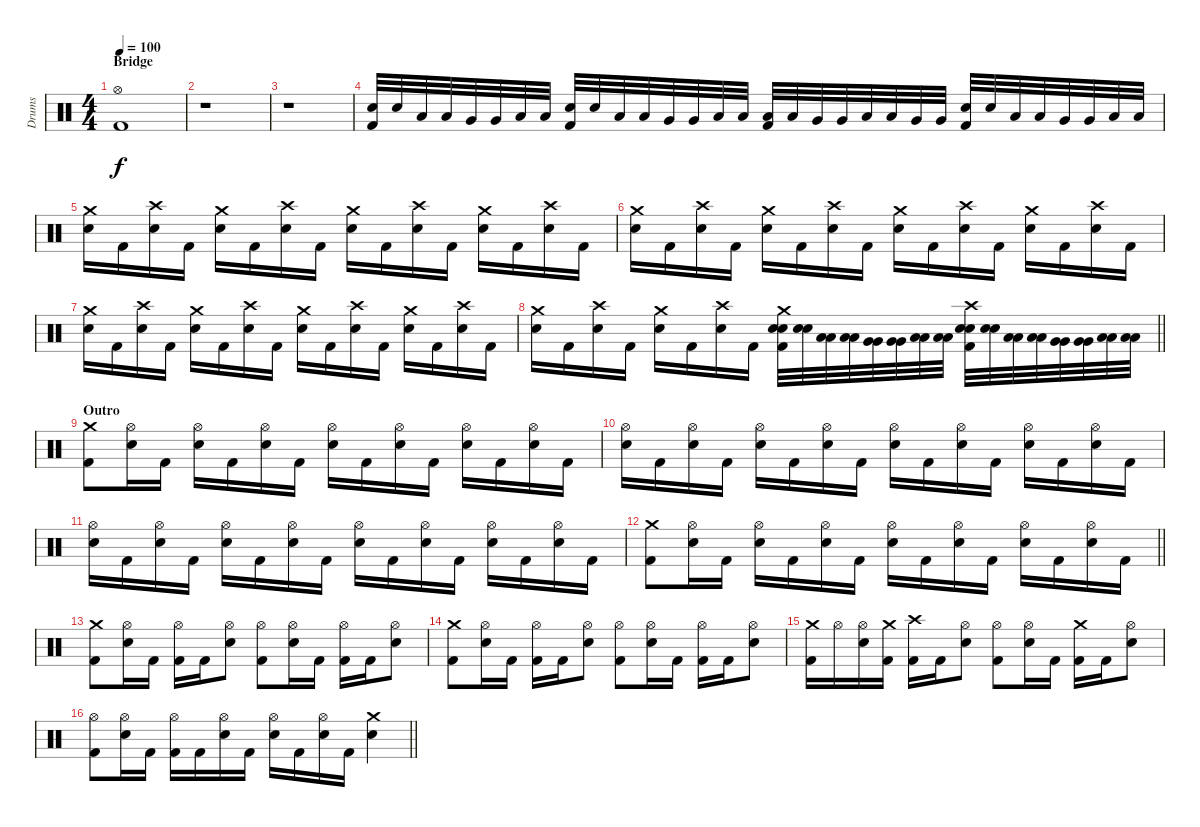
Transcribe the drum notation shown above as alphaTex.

\track ("Drums" "Drums") {instrument percussion}
\staff {score}
\articulation defaults
\ts (4 4)
\section ("" "Bridge")
\tempo 100
\clef neutral
\ks c
("Hi-Hat (open)" "Kick (hit) 2").1{dy f} |
r.1 |
r.1 |
("Electric Snare (hit)" "Kick (hit) 2").32 "Electric Snare (hit)".32 "Low Tom (hit)".32 "Low Tom (hit)".32 "Very Low Tom (hit)".32 "Very Low Tom (hit)".32 "Low Floor Tom (hit)".32 "Low Floor Tom (hit)".32 ("Electric Snare (hit)" "Kick (hit) 2").32 "Electric Snare (hit)".32 "Low Tom (hit)".32 "Low Tom (hit)".32 "Very Low Tom (hit)".32 "Very Low Tom (hit)".32 "Low Floor Tom (hit)".32 "Low Floor Tom (hit)".32 ("Low Tom (hit)" "Kick (hit) 2").32 "Low Tom (hit)".32 "Very Low Tom (hit)".32 "Very Low Tom (hit)".32 "Low Floor Tom (hit)".32 "Low Floor Tom (hit)".32 "Very Low Tom (hit)".32 "Very Low Tom (hit)".32 ("Electric Snare (hit)" "Kick (hit) 2").32 "Electric Snare (hit)".32 "Low Tom (hit)".32 "Low Tom (hit)".32 "Very Low Tom (hit)".32 "Very Low Tom (hit)".32 "Low Floor Tom (hit)".32 "Low Floor Tom (hit)".32 |
("Crash medium (hit)" "Electric Snare (hit)").16 "Kick (hit) 2".16 ("Crash high (hit)" "Electric Snare (hit)").16 "Kick (hit) 2".16 ("Crash medium (hit)" "Electric Snare (hit)").16 "Kick (hit) 2".16 ("Crash high (hit)" "Electric Snare (hit)").16 "Kick (hit) 2".16 ("Crash medium (hit)" "Electric Snare (hit)").16 "Kick (hit) 2".16 ("Crash high (hit)" "Electric Snare (hit)").16 "Kick (hit) 2".16 ("Crash medium (hit)" "Electric Snare (hit)").16 "Kick (hit) 2".16 ("Crash high (hit)" "Electric Snare (hit)").16 "Kick (hit) 2".16 |
("Crash medium (hit)" "Electric Snare (hit)").16 "Kick (hit) 2".16 ("Crash high (hit)" "Electric Snare (hit)").16 "Kick (hit) 2".16 ("Crash medium (hit)" "Electric Snare (hit)").16 "Kick (hit) 2".16 ("Crash high (hit)" "Electric Snare (hit)").16 "Kick (hit) 2".16 ("Crash medium (hit)" "Electric Snare (hit)").16 "Kick (hit) 2".16 ("Crash high (hit)" "Electric Snare (hit)").16 "Kick (hit) 2".16 ("Crash medium (hit)" "Electric Snare (hit)").16 "Kick (hit) 2".16 ("Crash high (hit)" "Electric Snare (hit)").16 "Kick (hit) 2".16 |
("Crash medium (hit)" "Electric Snare (hit)").16 "Kick (hit) 2".16 ("Crash high (hit)" "Electric Snare (hit)").16 "Kick (hit) 2".16 ("Crash medium (hit)" "Electric Snare (hit)").16 "Kick (hit) 2".16 ("Crash high (hit)" "Electric Snare (hit)").16 "Kick (hit) 2".16 ("Crash medium (hit)" "Electric Snare (hit)").16 "Kick (hit) 2".16 ("Crash high (hit)" "Electric Snare (hit)").16 "Kick (hit) 2".16 ("Crash medium (hit)" "Electric Snare (hit)").16 "Kick (hit) 2".16 ("Crash high (hit)" "Electric Snare (hit)").16 "Kick (hit) 2".16 |
\barLineRight lightlight
("Crash medium (hit)" "Electric Snare (hit)").16 "Kick (hit) 2".16 ("Crash high (hit)" "Electric Snare (hit)").16 "Kick (hit) 2".16 ("Crash medium (hit)" "Electric Snare (hit)").16 "Kick (hit) 2".16 ("Crash high (hit)" "Electric Snare (hit)").16 "Kick (hit) 2".16 ("Crash medium (hit)" "Electric Snare (hit)" "Electric Snare (hit)" "Kick (hit) 2").32 ("Electric Snare (hit)" "Electric Snare (hit)").32 ("Low Tom (hit)" "Low Tom (hit)").32 ("Low Tom (hit)" "Low Tom (hit)").32 ("Very Low Tom (hit)" "Very Low Tom (hit)").32 ("Very Low Tom (hit)" "Very Low Tom (hit)").32 ("Low Floor Tom (hit)" "Low Floor Tom (hit)").32 ("Low Floor Tom (hit)" "Low Floor Tom (hit)").32 ("Crash high (hit)" "Electric Snare (hit)" "Electric Snare (hit)" "Kick (hit) 2").32 ("Electric Snare (hit)" "Electric Snare (hit)").32 ("Low Tom (hit)" "Low Tom (hit)").32 ("Low Tom (hit)" "Low Tom (hit)").32 ("Very Low Tom (hit)" "Very Low Tom (hit)").32 ("Very Low Tom (hit)" "Very Low Tom (hit)").32 ("Low Floor Tom (hit)" "Low Floor Tom (hit)").32 ("Low Floor Tom (hit)" "Low Floor Tom (hit)").32 |
\section ("" "Outro")
("Crash medium (hit)" "Kick (hit) 2").8 ("Hi-Hat (open)" "Electric Snare (hit)").16 "Kick (hit) 2".16 ("Hi-Hat (open)" "Electric Snare (hit)").16 "Kick (hit) 2".16 ("Hi-Hat (open)" "Electric Snare (hit)").16 "Kick (hit) 2".16 ("Hi-Hat (open)" "Electric Snare (hit)").16 "Kick (hit) 2".16 ("Hi-Hat (open)" "Electric Snare (hit)").16 "Kick (hit) 2".16 ("Hi-Hat (open)" "Electric Snare (hit)").16 "Kick (hit) 2".16 ("Hi-Hat (open)" "Electric Snare (hit)").16 "Kick (hit) 2".16 |
("Hi-Hat (open)" "Electric Snare (hit)").16 "Kick (hit) 2".16 ("Hi-Hat (open)" "Electric Snare (hit)").16 "Kick (hit) 2".16 ("Hi-Hat (open)" "Electric Snare (hit)").16 "Kick (hit) 2".16 ("Hi-Hat (open)" "Electric Snare (hit)").16 "Kick (hit) 2".16 ("Hi-Hat (open)" "Electric Snare (hit)").16 "Kick (hit) 2".16 ("Hi-Hat (open)" "Electric Snare (hit)").16 "Kick (hit) 2".16 ("Hi-Hat (open)" "Electric Snare (hit)").16 "Kick (hit) 2".16 ("Hi-Hat (open)" "Electric Snare (hit)").16 "Kick (hit) 2".16 |
("Hi-Hat (open)" "Electric Snare (hit)").16 "Kick (hit) 2".16 ("Hi-Hat (open)" "Electric Snare (hit)").16 "Kick (hit) 2".16 ("Hi-Hat (open)" "Electric Snare (hit)").16 "Kick (hit) 2".16 ("Hi-Hat (open)" "Electric Snare (hit)").16 "Kick (hit) 2".16 ("Hi-Hat (open)" "Electric Snare (hit)").16 "Kick (hit) 2".16 ("Hi-Hat (open)" "Electric Snare (hit)").16 "Kick (hit) 2".16 ("Hi-Hat (open)" "Electric Snare (hit)").16 "Kick (hit) 2".16 ("Hi-Hat (open)" "Electric Snare (hit)").16 "Kick (hit) 2".16 |
\barLineRight lightlight
("Crash medium (hit)" "Kick (hit) 2").8 ("Hi-Hat (open)" "Electric Snare (hit)").16 "Kick (hit) 2".16 ("Hi-Hat (open)" "Electric Snare (hit)").16 "Kick (hit) 2".16 ("Hi-Hat (open)" "Electric Snare (hit)").16 "Kick (hit) 2".16 ("Hi-Hat (open)" "Electric Snare (hit)").16 "Kick (hit) 2".16 ("Hi-Hat (open)" "Electric Snare (hit)").16 "Kick (hit) 2".16 ("Hi-Hat (open)" "Electric Snare (hit)").16 "Kick (hit) 2".16 ("Hi-Hat (open)" "Electric Snare (hit)").16 "Kick (hit) 2".16 |
("Crash medium (hit)" "Kick (hit) 2").8 ("Hi-Hat (open)" "Electric Snare (hit)").16 "Kick (hit) 2".16 ("Hi-Hat (open)" "Kick (hit) 2").16 "Kick (hit) 2".16 ("Hi-Hat (open)" "Electric Snare (hit)").8 ("Hi-Hat (open)" "Kick (hit) 2").8 ("Hi-Hat (open)" "Electric Snare (hit)").16 "Kick (hit) 2".16 ("Hi-Hat (open)" "Kick (hit) 2").16 "Kick (hit) 2".16 ("Hi-Hat (open)" "Electric Snare (hit)").8 |
("Crash medium (hit)" "Kick (hit) 2").8 ("Hi-Hat (open)" "Electric Snare (hit)").16 "Kick (hit) 2".16 ("Hi-Hat (open)" "Kick (hit) 2").16 "Kick (hit) 2".16 ("Hi-Hat (open)" "Electric Snare (hit)").8 ("Hi-Hat (open)" "Kick (hit) 2").8 ("Hi-Hat (open)" "Electric Snare (hit)").16 "Kick (hit) 2".16 ("Hi-Hat (open)" "Kick (hit) 2").16 "Kick (hit) 2".16 ("Hi-Hat (open)" "Electric Snare (hit)").8 |
("Crash medium (hit)" "Kick (hit) 2").16 "Hi-Hat (open)".16 ("Hi-Hat (open)" "Electric Snare (hit)").16 ("Crash medium (hit)" "Kick (hit) 2").16 ("Crash high (hit)" "Kick (hit) 2").16 "Kick (hit) 2".16 ("Hi-Hat (open)" "Electric Snare (hit)").8 ("Hi-Hat (open)" "Kick (hit) 2").8 ("Hi-Hat (open)" "Electric Snare (hit)").16 "Kick (hit) 2".16 ("Crash medium (hit)" "Kick (hit) 2").16 "Kick (hit) 2".16 ("Hi-Hat (open)" "Electric Snare (hit)").8 |
\barLineRight lightlight
("Hi-Hat (open)" "Kick (hit) 2").8 ("Hi-Hat (open)" "Electric Snare (hit)").16 "Kick (hit) 2".16 ("Hi-Hat (open)" "Kick (hit) 2").16 "Kick (hit) 2".16 ("Hi-Hat (open)" "Electric Snare (hit)").16 "Kick (hit) 2".16 ("Hi-Hat (open)" "Electric Snare (hit)").16 "Kick (hit) 2".16 ("Hi-Hat (open)" "Electric Snare (hit)").16 "Kick (hit) 2".16 ("Crash medium (hit)" "Electric Snare (hit)").4
